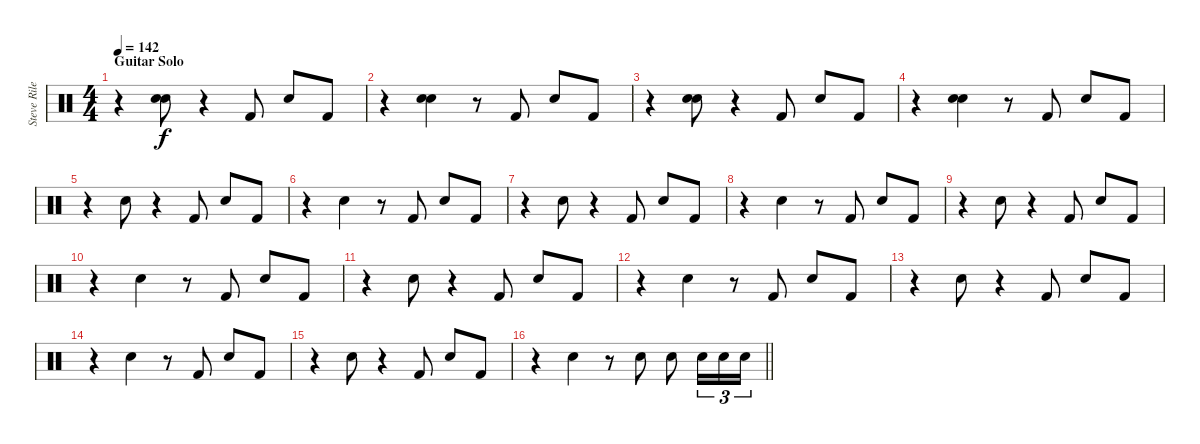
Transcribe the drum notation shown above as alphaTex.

\track ("Steve Riley" "Steve Rile") {instrument percussion}
\staff {score}
\articulation defaults
\ts (4 4)
\section ("" "Guitar Solo")
\tempo 142
\clef neutral
\ks c
r.4{dy fff} ("Electric Snare (hit)" "Electric Snare (hit)").8{bd 60 dy f} r.4 "Kick (hit) 2".8 "Electric Snare (hit)".8 "Kick (hit) 2".8 |
r.4 ("Electric Snare (hit)" "Electric Snare (hit)").4{bd 60} r.8 "Kick (hit) 2".8 "Electric Snare (hit)".8 "Kick (hit) 2".8 |
r.4 ("Electric Snare (hit)" "Electric Snare (hit)").8{bd 60} r.4 "Kick (hit) 2".8 "Electric Snare (hit)".8 "Kick (hit) 2".8 |
r.4 ("Electric Snare (hit)" "Electric Snare (hit)").4{bd 60} r.8 "Kick (hit) 2".8 "Electric Snare (hit)".8 "Kick (hit) 2".8 |
r.4 "Electric Snare (hit)".8 r.4 "Kick (hit) 2".8 "Electric Snare (hit)".8 "Kick (hit) 2".8 |
r.4 "Electric Snare (hit)".4 r.8 "Kick (hit) 2".8 "Electric Snare (hit)".8 "Kick (hit) 2".8 |
r.4 "Electric Snare (hit)".8 r.4 "Kick (hit) 2".8 "Electric Snare (hit)".8 "Kick (hit) 2".8 |
r.4 "Electric Snare (hit)".4 r.8 "Kick (hit) 2".8 "Electric Snare (hit)".8 "Kick (hit) 2".8 |
r.4 "Electric Snare (hit)".8 r.4 "Kick (hit) 2".8 "Electric Snare (hit)".8 "Kick (hit) 2".8 |
r.4 "Electric Snare (hit)".4 r.8 "Kick (hit) 2".8 "Electric Snare (hit)".8 "Kick (hit) 2".8 |
r.4 "Electric Snare (hit)".8 r.4 "Kick (hit) 2".8 "Electric Snare (hit)".8 "Kick (hit) 2".8 |
r.4 "Electric Snare (hit)".4 r.8 "Kick (hit) 2".8 "Electric Snare (hit)".8 "Kick (hit) 2".8 |
r.4 "Electric Snare (hit)".8 r.4 "Kick (hit) 2".8 "Electric Snare (hit)".8 "Kick (hit) 2".8 |
r.4 "Electric Snare (hit)".4 r.8 "Kick (hit) 2".8 "Electric Snare (hit)".8 "Kick (hit) 2".8 |
r.4 "Electric Snare (hit)".8 r.4 "Kick (hit) 2".8 "Electric Snare (hit)".8 "Kick (hit) 2".8 |
\barLineRight lightlight
r.4 "Electric Snare (hit)".4 r.8 "Electric Snare (hit)".8 "Electric Snare (hit)".8 "Electric Snare (hit)".16{tu (3 2)} "Electric Snare (hit)".16{tu (3 2)} "Electric Snare (hit)".16{tu (3 2)}
